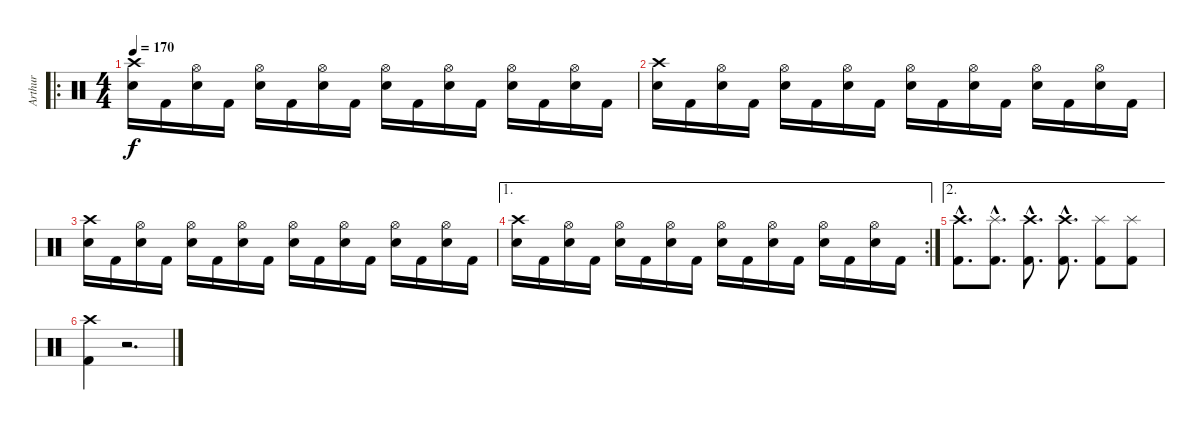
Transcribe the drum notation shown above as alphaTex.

\track ("Arthur" "Arthur") {instrument percussion}
\staff {score}
\articulation defaults
\ro
\ts (4 4)
\tempo 170
\clef neutral
\ks c
("Crash high (hit)" "Electric Snare (hit)").16{dy f} "Kick (hit) 2".16 ("Hi-Hat (open)" "Electric Snare (hit)").16 "Kick (hit) 2".16 ("Hi-Hat (open)" "Electric Snare (hit)").16 "Kick (hit) 2".16 ("Hi-Hat (open)" "Electric Snare (hit)").16 "Kick (hit) 2".16 ("Hi-Hat (open)" "Electric Snare (hit)").16 "Kick (hit) 2".16 ("Hi-Hat (open)" "Electric Snare (hit)").16 "Kick (hit) 2".16 ("Hi-Hat (open)" "Electric Snare (hit)").16 "Kick (hit) 2".16 ("Hi-Hat (open)" "Electric Snare (hit)").16 "Kick (hit) 2".16 |
("Crash high (hit)" "Electric Snare (hit)").16 "Kick (hit) 2".16 ("Hi-Hat (open)" "Electric Snare (hit)").16 "Kick (hit) 2".16 ("Hi-Hat (open)" "Electric Snare (hit)").16 "Kick (hit) 2".16 ("Hi-Hat (open)" "Electric Snare (hit)").16 "Kick (hit) 2".16 ("Hi-Hat (open)" "Electric Snare (hit)").16 "Kick (hit) 2".16 ("Hi-Hat (open)" "Electric Snare (hit)").16 "Kick (hit) 2".16 ("Hi-Hat (open)" "Electric Snare (hit)").16 "Kick (hit) 2".16 ("Hi-Hat (open)" "Electric Snare (hit)").16 "Kick (hit) 2".16 |
("Crash high (hit)" "Electric Snare (hit)").16 "Kick (hit) 2".16 ("Hi-Hat (open)" "Electric Snare (hit)").16 "Kick (hit) 2".16 ("Hi-Hat (open)" "Electric Snare (hit)").16 "Kick (hit) 2".16 ("Hi-Hat (open)" "Electric Snare (hit)").16 "Kick (hit) 2".16 ("Hi-Hat (open)" "Electric Snare (hit)").16 "Kick (hit) 2".16 ("Hi-Hat (open)" "Electric Snare (hit)").16 "Kick (hit) 2".16 ("Hi-Hat (open)" "Electric Snare (hit)").16 "Kick (hit) 2".16 ("Hi-Hat (open)" "Electric Snare (hit)").16 "Kick (hit) 2".16 |
\ae 1
\rc 2
("Crash high (hit)" "Electric Snare (hit)").16 "Kick (hit) 2".16 ("Hi-Hat (open)" "Electric Snare (hit)").16 "Kick (hit) 2".16 ("Hi-Hat (open)" "Electric Snare (hit)").16 "Kick (hit) 2".16 ("Hi-Hat (open)" "Electric Snare (hit)").16 "Kick (hit) 2".16 ("Hi-Hat (open)" "Electric Snare (hit)").16 "Kick (hit) 2".16 ("Hi-Hat (open)" "Electric Snare (hit)").16 "Kick (hit) 2".16 ("Hi-Hat (open)" "Electric Snare (hit)").16 "Kick (hit) 2".16 ("Hi-Hat (open)" "Electric Snare (hit)").16 "Kick (hit) 2".16 |
\ae 2
("Crash high (hit)"{hac} "Kick (hit) 2"{hac}).8{d} ("Splash (hit)"{hac} "Kick (hit) 2"{hac}).8{d} ("Crash high (hit)"{hac} "Kick (hit) 2"{hac}).8{d} ("Crash high (hit)"{hac} "Kick (hit) 2"{hac}).8{d} ("Splash (hit)" "Kick (hit) 2").8 ("Splash (hit)" "Kick (hit) 2").8 |
("Crash high (hit)" "Kick (hit) 2").4 r.2{d}
